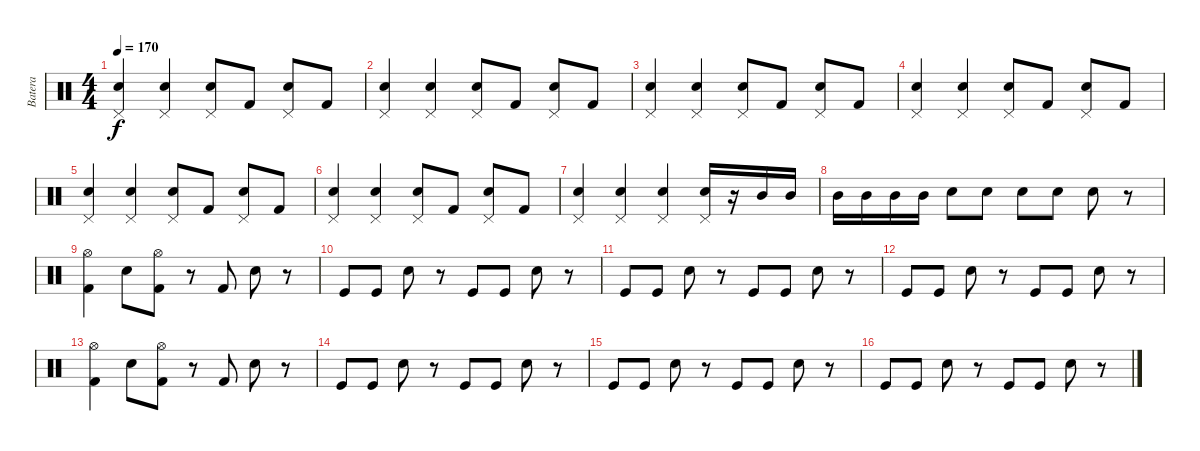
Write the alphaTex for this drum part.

\track ("Batera" "Batera") {instrument percussion}
\staff {score}
\articulation defaults
\ts (4 4)
\tempo 170
\clef neutral
\ks c
("Pedal Hi-Hat (hit)" "Electric Snare (hit)").4{dy f} ("Pedal Hi-Hat (hit)" "Electric Snare (hit)").4 ("Pedal Hi-Hat (hit)" "Electric Snare (hit)").8 "Kick (hit) 2".8 ("Pedal Hi-Hat (hit)" "Electric Snare (hit)").8 "Kick (hit) 2".8 |
("Pedal Hi-Hat (hit)" "Electric Snare (hit)").4 ("Pedal Hi-Hat (hit)" "Electric Snare (hit)").4 ("Pedal Hi-Hat (hit)" "Electric Snare (hit)").8 "Kick (hit) 2".8 ("Pedal Hi-Hat (hit)" "Electric Snare (hit)").8 "Kick (hit) 2".8 |
("Pedal Hi-Hat (hit)" "Electric Snare (hit)").4 ("Pedal Hi-Hat (hit)" "Electric Snare (hit)").4 ("Pedal Hi-Hat (hit)" "Electric Snare (hit)").8 "Kick (hit) 2".8 ("Pedal Hi-Hat (hit)" "Electric Snare (hit)").8 "Kick (hit) 2".8 |
("Pedal Hi-Hat (hit)" "Electric Snare (hit)").4 ("Pedal Hi-Hat (hit)" "Electric Snare (hit)").4 ("Pedal Hi-Hat (hit)" "Electric Snare (hit)").8 "Kick (hit) 2".8 ("Pedal Hi-Hat (hit)" "Electric Snare (hit)").8 "Kick (hit) 2".8 |
("Pedal Hi-Hat (hit)" "Electric Snare (hit)").4 ("Pedal Hi-Hat (hit)" "Electric Snare (hit)").4 ("Pedal Hi-Hat (hit)" "Electric Snare (hit)").8 "Kick (hit) 2".8 ("Pedal Hi-Hat (hit)" "Electric Snare (hit)").8 "Kick (hit) 2".8 |
("Pedal Hi-Hat (hit)" "Electric Snare (hit)").4 ("Pedal Hi-Hat (hit)" "Electric Snare (hit)").4 ("Pedal Hi-Hat (hit)" "Electric Snare (hit)").8 "Kick (hit) 2".8 ("Pedal Hi-Hat (hit)" "Electric Snare (hit)").8 "Kick (hit) 2".8 |
("Pedal Hi-Hat (hit)" "Electric Snare (hit)").4 ("Pedal Hi-Hat (hit)" "Electric Snare (hit)").4 ("Pedal Hi-Hat (hit)" "Electric Snare (hit)").4 ("Pedal Hi-Hat (hit)" "Electric Snare (hit)").16 r.16 "Mid Tom (hit)".16 "Mid Tom (hit)".16 |
"Mid Tom (hit)".16 "Mid Tom (hit)".16 "Mid Tom (hit)".16 "Mid Tom (hit)".16 "Electric Snare (hit)".8 "Electric Snare (hit)".8 "Electric Snare (hit)".8 "Electric Snare (hit)".8 "Electric Snare (hit)".8 r.8 |
("Hi-Hat (open)" "Kick (hit) 2").4 "Electric Snare (hit)".8 ("Hi-Hat (open)" "Kick (hit) 2").8 r.8 "Kick (hit) 2".8 "Electric Snare (hit)".8 r.8 |
"Kick (hit)".8 "Kick (hit)".8 "Electric Snare (hit)".8 r.8 "Kick (hit)".8 "Kick (hit)".8 "Electric Snare (hit)".8 r.8 |
"Kick (hit)".8 "Kick (hit)".8 "Electric Snare (hit)".8 r.8 "Kick (hit)".8 "Kick (hit)".8 "Electric Snare (hit)".8 r.8 |
"Kick (hit)".8 "Kick (hit)".8 "Electric Snare (hit)".8 r.8 "Kick (hit)".8 "Kick (hit)".8 "Electric Snare (hit)".8 r.8 |
("Hi-Hat (open)" "Kick (hit) 2").4 "Electric Snare (hit)".8 ("Hi-Hat (open)" "Kick (hit) 2").8 r.8 "Kick (hit) 2".8 "Electric Snare (hit)".8 r.8 |
"Kick (hit)".8 "Kick (hit)".8 "Electric Snare (hit)".8 r.8 "Kick (hit)".8 "Kick (hit)".8 "Electric Snare (hit)".8 r.8 |
"Kick (hit)".8 "Kick (hit)".8 "Electric Snare (hit)".8 r.8 "Kick (hit)".8 "Kick (hit)".8 "Electric Snare (hit)".8 r.8 |
"Kick (hit)".8 "Kick (hit)".8 "Electric Snare (hit)".8 r.8 "Kick (hit)".8 "Kick (hit)".8 "Electric Snare (hit)".8 r.8
